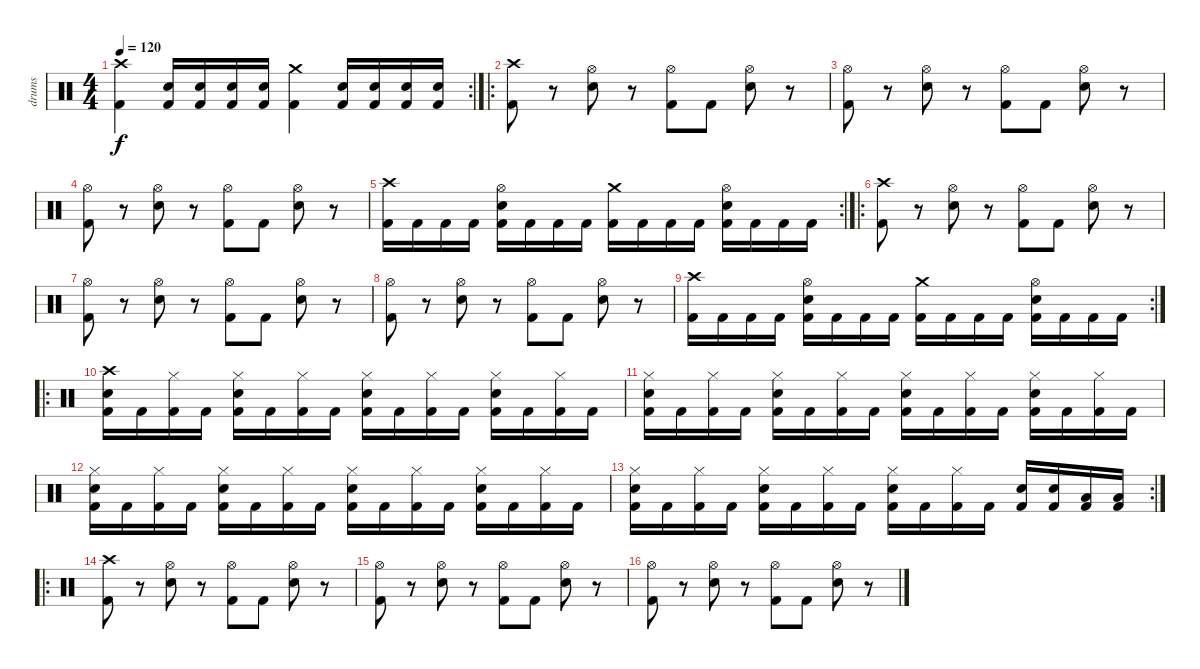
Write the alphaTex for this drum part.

\track ("drums" "drums") {instrument percussion}
\staff {score}
\articulation defaults
\rc 2
\ts (4 4)
\tempo 120
\clef neutral
\ks c
("Crash high (hit)" "Kick (hit) 2").4{dy f} ("Snare (hit) 2" "Kick (hit) 2").16 ("Snare (hit) 2" "Kick (hit) 2").16 ("Snare (hit) 2" "Kick (hit) 2").16 ("Snare (hit) 2" "Kick (hit) 2").16 ("Crash medium (hit)" "Kick (hit) 2").4 ("Snare (hit) 2" "Kick (hit) 2").16 ("Snare (hit) 2" "Kick (hit) 2").16 ("Snare (hit) 2" "Kick (hit) 2").16 ("Snare (hit) 2" "Kick (hit) 2").16 |
\ro
("Crash high (hit)" "Kick (hit) 2").8 r.8 ("Hi-Hat (open)" "Snare (hit) 2").8 r.8 ("Hi-Hat (open)" "Kick (hit) 2").8 "Kick (hit) 2".8 ("Hi-Hat (open)" "Snare (hit) 2").8 r.8 |
("Hi-Hat (open)" "Kick (hit) 2").8 r.8 ("Hi-Hat (open)" "Snare (hit) 2").8 r.8 ("Hi-Hat (open)" "Kick (hit) 2").8 "Kick (hit) 2".8 ("Hi-Hat (open)" "Snare (hit) 2").8 r.8 |
("Hi-Hat (open)" "Kick (hit) 2").8 r.8 ("Hi-Hat (open)" "Snare (hit) 2").8 r.8 ("Hi-Hat (open)" "Kick (hit) 2").8 "Kick (hit) 2".8 ("Hi-Hat (open)" "Snare (hit) 2").8 r.8 |
\rc 2
("Crash high (hit)" "Kick (hit) 2").16 "Kick (hit) 2".16 "Kick (hit) 2".16 "Kick (hit) 2".16 ("Hi-Hat (open)" "Snare (hit) 2" "Kick (hit) 2").16 "Kick (hit) 2".16 "Kick (hit) 2".16 "Kick (hit) 2".16 ("Crash medium (hit)" "Kick (hit) 2").16 "Kick (hit) 2".16 "Kick (hit) 2".16 "Kick (hit) 2".16 ("Hi-Hat (open)" "Snare (hit) 2" "Kick (hit) 2").16 "Kick (hit) 2".16 "Kick (hit) 2".16 "Kick (hit) 2".16 |
\ro
("Crash high (hit)" "Kick (hit) 2").8 r.8 ("Hi-Hat (open)" "Snare (hit) 2").8 r.8 ("Hi-Hat (open)" "Kick (hit) 2").8 "Kick (hit) 2".8 ("Hi-Hat (open)" "Snare (hit) 2").8 r.8 |
("Hi-Hat (open)" "Kick (hit) 2").8 r.8 ("Hi-Hat (open)" "Snare (hit) 2").8 r.8 ("Hi-Hat (open)" "Kick (hit) 2").8 "Kick (hit) 2".8 ("Hi-Hat (open)" "Snare (hit) 2").8 r.8 |
("Hi-Hat (open)" "Kick (hit) 2").8 r.8 ("Hi-Hat (open)" "Snare (hit) 2").8 r.8 ("Hi-Hat (open)" "Kick (hit) 2").8 "Kick (hit) 2".8 ("Hi-Hat (open)" "Snare (hit) 2").8 r.8 |
\rc 2
("Crash high (hit)" "Kick (hit) 2").16 "Kick (hit) 2".16 "Kick (hit) 2".16 "Kick (hit) 2".16 ("Hi-Hat (open)" "Snare (hit) 2" "Kick (hit) 2").16 "Kick (hit) 2".16 "Kick (hit) 2".16 "Kick (hit) 2".16 ("Crash medium (hit)" "Kick (hit) 2").16 "Kick (hit) 2".16 "Kick (hit) 2".16 "Kick (hit) 2".16 ("Hi-Hat (open)" "Snare (hit) 2" "Kick (hit) 2").16 "Kick (hit) 2".16 "Kick (hit) 2".16 "Kick (hit) 2".16 |
\ro
("Crash high (hit)" "Snare (hit) 2" "Kick (hit) 2").16 "Kick (hit) 2".16 ("Hi-Hat (closed)" "Kick (hit) 2").16 "Kick (hit) 2".16 ("Hi-Hat (closed)" "Snare (hit) 2" "Kick (hit) 2").16 "Kick (hit) 2".16 ("Hi-Hat (closed)" "Kick (hit) 2").16 "Kick (hit) 2".16 ("Hi-Hat (closed)" "Snare (hit) 2" "Kick (hit) 2").16 "Kick (hit) 2".16 ("Hi-Hat (closed)" "Kick (hit) 2").16 "Kick (hit) 2".16 ("Hi-Hat (closed)" "Snare (hit) 2" "Kick (hit) 2").16 "Kick (hit) 2".16 ("Hi-Hat (closed)" "Kick (hit) 2").16 "Kick (hit) 2".16 |
("Hi-Hat (closed)" "Snare (hit) 2" "Kick (hit) 2").16 "Kick (hit) 2".16 ("Hi-Hat (closed)" "Kick (hit) 2").16 "Kick (hit) 2".16 ("Hi-Hat (closed)" "Snare (hit) 2" "Kick (hit) 2").16 "Kick (hit) 2".16 ("Hi-Hat (closed)" "Kick (hit) 2").16 "Kick (hit) 2".16 ("Hi-Hat (closed)" "Snare (hit) 2" "Kick (hit) 2").16 "Kick (hit) 2".16 ("Hi-Hat (closed)" "Kick (hit) 2").16 "Kick (hit) 2".16 ("Hi-Hat (closed)" "Snare (hit) 2" "Kick (hit) 2").16 "Kick (hit) 2".16 ("Hi-Hat (closed)" "Kick (hit) 2").16 "Kick (hit) 2".16 |
("Hi-Hat (closed)" "Snare (hit) 2" "Kick (hit) 2").16 "Kick (hit) 2".16 ("Hi-Hat (closed)" "Kick (hit) 2").16 "Kick (hit) 2".16 ("Hi-Hat (closed)" "Snare (hit) 2" "Kick (hit) 2").16 "Kick (hit) 2".16 ("Hi-Hat (closed)" "Kick (hit) 2").16 "Kick (hit) 2".16 ("Hi-Hat (closed)" "Snare (hit) 2" "Kick (hit) 2").16 "Kick (hit) 2".16 ("Hi-Hat (closed)" "Kick (hit) 2").16 "Kick (hit) 2".16 ("Hi-Hat (closed)" "Snare (hit) 2" "Kick (hit) 2").16 "Kick (hit) 2".16 ("Hi-Hat (closed)" "Kick (hit) 2").16 "Kick (hit) 2".16 |
\rc 2
("Hi-Hat (closed)" "Snare (hit) 2" "Kick (hit) 2").16 "Kick (hit) 2".16 ("Hi-Hat (closed)" "Kick (hit) 2").16 "Kick (hit) 2".16 ("Hi-Hat (closed)" "Snare (hit) 2" "Kick (hit) 2").16 "Kick (hit) 2".16 ("Hi-Hat (closed)" "Kick (hit) 2").16 "Kick (hit) 2".16 ("Hi-Hat (closed)" "Snare (hit) 2" "Kick (hit) 2").16 "Kick (hit) 2".16 ("Hi-Hat (closed)" "Kick (hit) 2").16 "Kick (hit) 2".16 ("Snare (hit) 2" "Kick (hit) 2").16 ("Snare (hit) 2" "Kick (hit) 2").16 ("Low Tom (hit)" "Kick (hit) 2").16 ("Low Tom (hit)" "Kick (hit) 2").16 |
\ro
("Crash high (hit)" "Kick (hit) 2").8 r.8 ("Hi-Hat (open)" "Snare (hit) 2").8 r.8 ("Hi-Hat (open)" "Kick (hit) 2").8 "Kick (hit) 2".8 ("Hi-Hat (open)" "Snare (hit) 2").8 r.8 |
("Hi-Hat (open)" "Kick (hit) 2").8 r.8 ("Hi-Hat (open)" "Snare (hit) 2").8 r.8 ("Hi-Hat (open)" "Kick (hit) 2").8 "Kick (hit) 2".8 ("Hi-Hat (open)" "Snare (hit) 2").8 r.8 |
("Hi-Hat (open)" "Kick (hit) 2").8 r.8 ("Hi-Hat (open)" "Snare (hit) 2").8 r.8 ("Hi-Hat (open)" "Kick (hit) 2").8 "Kick (hit) 2".8 ("Hi-Hat (open)" "Snare (hit) 2").8 r.8
